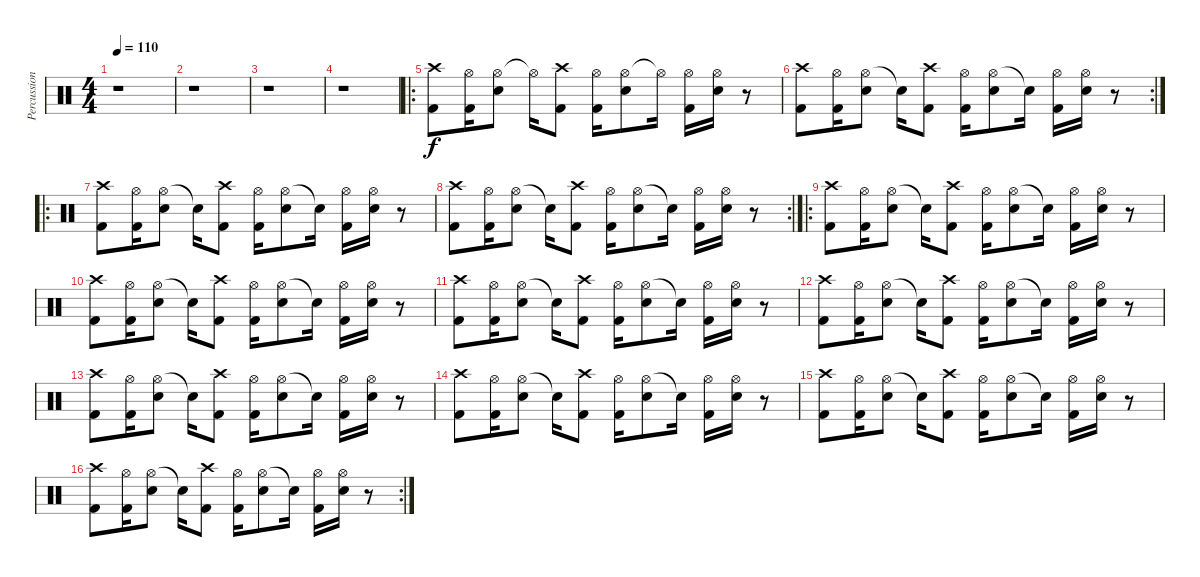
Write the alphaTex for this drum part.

\track ("Percussions" "Percussion") {instrument percussion}
\staff {score}
\articulation defaults
\ts (4 4)
\tempo 110
\clef neutral
\ks c
r.1{dy f} |
r.1 |
r.1 |
r.1 |
\ro
("Crash high (hit)" "Kick (hit) 2").8{volume 16} ("Hi-Hat (open)" "Kick (hit) 2").16 ("Hi-Hat (open)" "Snare (hit) 2").8 "Hi-Hat (open)"{t}.16 ("Crash high (hit)" "Kick (hit) 2").8 ("Hi-Hat (open)" "Kick (hit) 2").16 ("Hi-Hat (open)" "Snare (hit) 2").8 "Hi-Hat (open)"{t}.16 ("Hi-Hat (open)" "Kick (hit) 2").16 ("Hi-Hat (open)" "Snare (hit) 2").16 r.8 |
\rc 2
("Crash high (hit)" "Kick (hit) 2").8 ("Hi-Hat (open)" "Kick (hit) 2").16 ("Hi-Hat (open)" "Snare (hit) 2").8 "Snare (hit)"{t}.16 ("Crash high (hit)" "Kick (hit) 2").8 ("Hi-Hat (open)" "Kick (hit) 2").16 ("Hi-Hat (open)" "Snare (hit) 2").8 "Snare (hit)"{t}.16 ("Hi-Hat (open)" "Kick (hit) 2").16 ("Hi-Hat (open)" "Snare (hit) 2").16 r.8 |
\ro
("Crash high (hit)" "Kick (hit) 2").8 ("Hi-Hat (open)" "Kick (hit) 2").16 ("Hi-Hat (open)" "Snare (hit) 2").8 "Snare (hit)"{t}.16 ("Crash high (hit)" "Kick (hit) 2").8 ("Hi-Hat (open)" "Kick (hit) 2").16 ("Hi-Hat (open)" "Snare (hit) 2").8 "Snare (hit)"{t}.16 ("Hi-Hat (open)" "Kick (hit) 2").16 ("Hi-Hat (open)" "Snare (hit) 2").16 r.8 |
\rc 2
("Crash high (hit)" "Kick (hit) 2").8 ("Hi-Hat (open)" "Kick (hit) 2").16 ("Hi-Hat (open)" "Snare (hit) 2").8 "Snare (hit)"{t}.16 ("Crash high (hit)" "Kick (hit) 2").8 ("Hi-Hat (open)" "Kick (hit) 2").16 ("Hi-Hat (open)" "Snare (hit) 2").8 "Snare (hit)"{t}.16 ("Hi-Hat (open)" "Kick (hit) 2").16 ("Hi-Hat (open)" "Snare (hit) 2").16 r.8 |
\ro
("Crash high (hit)" "Kick (hit) 2").8 ("Hi-Hat (open)" "Kick (hit) 2").16 ("Hi-Hat (open)" "Snare (hit) 2").8 "Snare (hit)"{t}.16 ("Crash high (hit)" "Kick (hit) 2").8 ("Hi-Hat (open)" "Kick (hit) 2").16 ("Hi-Hat (open)" "Snare (hit) 2").8 "Snare (hit)"{t}.16 ("Hi-Hat (open)" "Kick (hit) 2").16 ("Hi-Hat (open)" "Snare (hit) 2").16 r.8 |
("Crash high (hit)" "Kick (hit) 2").8 ("Hi-Hat (open)" "Kick (hit) 2").16 ("Hi-Hat (open)" "Snare (hit) 2").8 "Snare (hit)"{t}.16 ("Crash high (hit)" "Kick (hit) 2").8 ("Hi-Hat (open)" "Kick (hit) 2").16 ("Hi-Hat (open)" "Snare (hit) 2").8 "Snare (hit)"{t}.16 ("Hi-Hat (open)" "Kick (hit) 2").16 ("Hi-Hat (open)" "Snare (hit) 2").16 r.8 |
("Crash high (hit)" "Kick (hit) 2").8 ("Hi-Hat (open)" "Kick (hit) 2").16 ("Hi-Hat (open)" "Snare (hit) 2").8 "Snare (hit)"{t}.16 ("Crash high (hit)" "Kick (hit) 2").8 ("Hi-Hat (open)" "Kick (hit) 2").16 ("Hi-Hat (open)" "Snare (hit) 2").8 "Snare (hit)"{t}.16 ("Hi-Hat (open)" "Kick (hit) 2").16 ("Hi-Hat (open)" "Snare (hit) 2").16 r.8 |
("Crash high (hit)" "Kick (hit) 2").8 ("Hi-Hat (open)" "Kick (hit) 2").16 ("Hi-Hat (open)" "Snare (hit) 2").8 "Snare (hit)"{t}.16 ("Crash high (hit)" "Kick (hit) 2").8 ("Hi-Hat (open)" "Kick (hit) 2").16 ("Hi-Hat (open)" "Snare (hit) 2").8 "Snare (hit)"{t}.16 ("Hi-Hat (open)" "Kick (hit) 2").16 ("Hi-Hat (open)" "Snare (hit) 2").16 r.8 |
("Crash high (hit)" "Kick (hit) 2").8 ("Hi-Hat (open)" "Kick (hit) 2").16 ("Hi-Hat (open)" "Snare (hit) 2").8 "Snare (hit)"{t}.16 ("Crash high (hit)" "Kick (hit) 2").8 ("Hi-Hat (open)" "Kick (hit) 2").16 ("Hi-Hat (open)" "Snare (hit) 2").8 "Snare (hit)"{t}.16 ("Hi-Hat (open)" "Kick (hit) 2").16 ("Hi-Hat (open)" "Snare (hit) 2").16 r.8 |
("Crash high (hit)" "Kick (hit) 2").8 ("Hi-Hat (open)" "Kick (hit) 2").16 ("Hi-Hat (open)" "Snare (hit) 2").8 "Snare (hit)"{t}.16 ("Crash high (hit)" "Kick (hit) 2").8 ("Hi-Hat (open)" "Kick (hit) 2").16 ("Hi-Hat (open)" "Snare (hit) 2").8 "Snare (hit)"{t}.16 ("Hi-Hat (open)" "Kick (hit) 2").16 ("Hi-Hat (open)" "Snare (hit) 2").16 r.8 |
("Crash high (hit)" "Kick (hit) 2").8 ("Hi-Hat (open)" "Kick (hit) 2").16 ("Hi-Hat (open)" "Snare (hit) 2").8 "Snare (hit)"{t}.16 ("Crash high (hit)" "Kick (hit) 2").8 ("Hi-Hat (open)" "Kick (hit) 2").16 ("Hi-Hat (open)" "Snare (hit) 2").8 "Snare (hit)"{t}.16 ("Hi-Hat (open)" "Kick (hit) 2").16 ("Hi-Hat (open)" "Snare (hit) 2").16 r.8 |
\rc 2
("Crash high (hit)" "Kick (hit) 2").8 ("Hi-Hat (open)" "Kick (hit) 2").16 ("Hi-Hat (open)" "Snare (hit) 2").8 "Snare (hit)"{t}.16 ("Crash high (hit)" "Kick (hit) 2").8 ("Hi-Hat (open)" "Kick (hit) 2").16 ("Hi-Hat (open)" "Snare (hit) 2").8 "Snare (hit)"{t}.16 ("Hi-Hat (open)" "Kick (hit) 2").16 ("Hi-Hat (open)" "Snare (hit) 2").16 r.8
